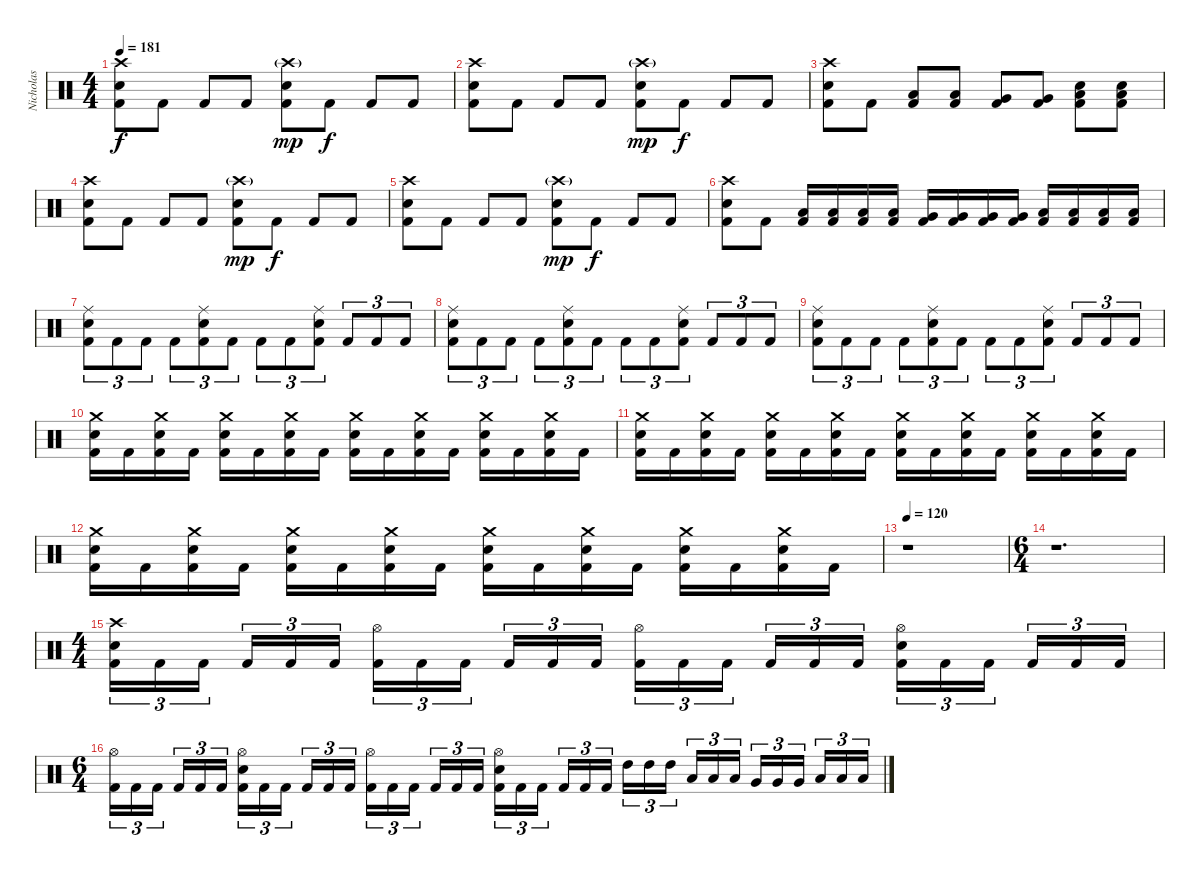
\track ("Nicholas" "Nicholas") {instrument percussion}
\staff {score}
\articulation defaults
\ts (4 4)
\tempo 181
\clef neutral
\ks c
("Crash high (hit)" "Electric Snare (hit)" "Kick (hit) 2").8{dy f} "Kick (hit) 2".8 "Kick (hit) 2".8 "Kick (hit) 2".8 ("Crash high (hit)"{g} "Electric Snare (hit)" "Kick (hit) 2").8{dy mp} "Kick (hit) 2".8{dy f} "Kick (hit) 2".8 "Kick (hit) 2".8 |
("Crash high (hit)" "Electric Snare (hit)" "Kick (hit) 2").8 "Kick (hit) 2".8 "Kick (hit) 2".8 "Kick (hit) 2".8 ("Crash high (hit)"{g} "Electric Snare (hit)" "Kick (hit) 2").8{dy mp} "Kick (hit) 2".8{dy f} "Kick (hit) 2".8 "Kick (hit) 2".8 |
("Crash high (hit)" "Electric Snare (hit)" "Kick (hit) 2").8 "Kick (hit) 2".8 ("Low Tom (hit)" "Kick (hit) 2").8 ("Low Tom (hit)" "Kick (hit) 2").8 ("Very Low Tom (hit)" "Kick (hit) 2").8 ("Very Low Tom (hit)" "Kick (hit) 2").8 ("Low Floor Tom (hit)" "Electric Snare (hit)" "Kick (hit) 2").8 ("Low Floor Tom (hit)" "Electric Snare (hit)" "Kick (hit) 2").8 |
("Crash high (hit)" "Electric Snare (hit)" "Kick (hit) 2").8 "Kick (hit) 2".8 "Kick (hit) 2".8 "Kick (hit) 2".8 ("Crash high (hit)"{g} "Electric Snare (hit)" "Kick (hit) 2").8{dy mp} "Kick (hit) 2".8{dy f} "Kick (hit) 2".8 "Kick (hit) 2".8 |
("Crash high (hit)" "Electric Snare (hit)" "Kick (hit) 2").8 "Kick (hit) 2".8 "Kick (hit) 2".8 "Kick (hit) 2".8 ("Crash high (hit)"{g} "Electric Snare (hit)" "Kick (hit) 2").8{dy mp} "Kick (hit) 2".8{dy f} "Kick (hit) 2".8 "Kick (hit) 2".8 |
("Crash high (hit)" "Electric Snare (hit)" "Kick (hit) 2").8 "Kick (hit) 2".8 ("Low Tom (hit)" "Kick (hit) 2").16 ("Low Tom (hit)" "Kick (hit) 2").16 ("Low Tom (hit)" "Kick (hit) 2").16 ("Low Tom (hit)" "Kick (hit) 2").16 ("Very Low Tom (hit)" "Kick (hit) 2").16 ("Very Low Tom (hit)" "Kick (hit) 2").16 ("Very Low Tom (hit)" "Kick (hit) 2").16 ("Very Low Tom (hit)" "Kick (hit) 2").16 ("Low Floor Tom (hit)" "Kick (hit) 2").16 ("Low Floor Tom (hit)" "Kick (hit) 2").16 ("Low Floor Tom (hit)" "Kick (hit) 2").16 ("Low Floor Tom (hit)" "Kick (hit) 2").16 |
("Ride (middle)" "Electric Snare (hit)" "Kick (hit) 2").8{tu (3 2)} "Kick (hit) 2".8{tu (3 2)} "Kick (hit) 2".8{tu (3 2)} "Kick (hit) 2".8{tu (3 2)} ("Ride (middle)" "Electric Snare (hit)" "Kick (hit) 2").8{tu (3 2)} "Kick (hit) 2".8{tu (3 2)} "Kick (hit) 2".8{tu (3 2)} "Kick (hit) 2".8{tu (3 2)} ("Ride (middle)" "Electric Snare (hit)" "Kick (hit) 2").8{tu (3 2)} "Kick (hit) 2".8{tu (3 2)} "Kick (hit) 2".8{tu (3 2)} "Kick (hit) 2".8{tu (3 2)} |
("Ride (middle)" "Electric Snare (hit)" "Kick (hit) 2").8{tu (3 2)} "Kick (hit) 2".8{tu (3 2)} "Kick (hit) 2".8{tu (3 2)} "Kick (hit) 2".8{tu (3 2)} ("Ride (middle)" "Electric Snare (hit)" "Kick (hit) 2").8{tu (3 2)} "Kick (hit) 2".8{tu (3 2)} "Kick (hit) 2".8{tu (3 2)} "Kick (hit) 2".8{tu (3 2)} ("Ride (middle)" "Electric Snare (hit)" "Kick (hit) 2").8{tu (3 2)} "Kick (hit) 2".8{tu (3 2)} "Kick (hit) 2".8{tu (3 2)} "Kick (hit) 2".8{tu (3 2)} |
("Ride (middle)" "Electric Snare (hit)" "Kick (hit) 2").8{tu (3 2)} "Kick (hit) 2".8{tu (3 2)} "Kick (hit) 2".8{tu (3 2)} "Kick (hit) 2".8{tu (3 2)} ("Ride (middle)" "Electric Snare (hit)" "Kick (hit) 2").8{tu (3 2)} "Kick (hit) 2".8{tu (3 2)} "Kick (hit) 2".8{tu (3 2)} "Kick (hit) 2".8{tu (3 2)} ("Ride (middle)" "Electric Snare (hit)" "Kick (hit) 2").8{tu (3 2)} "Kick (hit) 2".8{tu (3 2)} "Kick (hit) 2".8{tu (3 2)} "Kick (hit) 2".8{tu (3 2)} |
("Crash medium (hit)" "Electric Snare (hit)" "Kick (hit) 2").16 "Kick (hit) 2".16 ("Crash medium (hit)" "Electric Snare (hit)" "Kick (hit) 2").16 "Kick (hit) 2".16 ("Crash medium (hit)" "Electric Snare (hit)" "Kick (hit) 2").16 "Kick (hit) 2".16 ("Crash medium (hit)" "Electric Snare (hit)" "Kick (hit) 2").16 "Kick (hit) 2".16 ("Crash medium (hit)" "Electric Snare (hit)" "Kick (hit) 2").16 "Kick (hit) 2".16 ("Crash medium (hit)" "Electric Snare (hit)" "Kick (hit) 2").16 "Kick (hit) 2".16 ("Crash medium (hit)" "Electric Snare (hit)" "Kick (hit) 2").16 "Kick (hit) 2".16 ("Crash medium (hit)" "Electric Snare (hit)" "Kick (hit) 2").16 "Kick (hit) 2".16 |
("Crash medium (hit)" "Electric Snare (hit)" "Kick (hit) 2").16 "Kick (hit) 2".16 ("Crash medium (hit)" "Electric Snare (hit)" "Kick (hit) 2").16 "Kick (hit) 2".16 ("Crash medium (hit)" "Electric Snare (hit)" "Kick (hit) 2").16 "Kick (hit) 2".16 ("Crash medium (hit)" "Electric Snare (hit)" "Kick (hit) 2").16 "Kick (hit) 2".16 ("Crash medium (hit)" "Electric Snare (hit)" "Kick (hit) 2").16 "Kick (hit) 2".16 ("Crash medium (hit)" "Electric Snare (hit)" "Kick (hit) 2").16 "Kick (hit) 2".16 ("Crash medium (hit)" "Electric Snare (hit)" "Kick (hit) 2").16 "Kick (hit) 2".16 ("Crash medium (hit)" "Electric Snare (hit)" "Kick (hit) 2").16 "Kick (hit) 2".16 |
("Crash medium (hit)" "Electric Snare (hit)" "Kick (hit) 2").16 "Kick (hit) 2".16 ("Crash medium (hit)" "Electric Snare (hit)" "Kick (hit) 2").16 "Kick (hit) 2".16 ("Crash medium (hit)" "Electric Snare (hit)" "Kick (hit) 2").16 "Kick (hit) 2".16 ("Crash medium (hit)" "Electric Snare (hit)" "Kick (hit) 2").16 "Kick (hit) 2".16 ("Crash medium (hit)" "Electric Snare (hit)" "Kick (hit) 2").16 "Kick (hit) 2".16 ("Crash medium (hit)" "Electric Snare (hit)" "Kick (hit) 2").16 "Kick (hit) 2".16 ("Crash medium (hit)" "Electric Snare (hit)" "Kick (hit) 2").16 "Kick (hit) 2".16 ("Crash medium (hit)" "Electric Snare (hit)" "Kick (hit) 2").16 "Kick (hit) 2".16 |
\tempo 120
r.1 |
\ts (6 4)
r.1{d} |
\ts (4 4)
("Crash high (hit)" "Electric Snare (hit)" "Kick (hit) 2").16{tu (3 2)} "Kick (hit) 2".16{tu (3 2)} "Kick (hit) 2".16{tu (3 2)} "Kick (hit) 2".16{tu (3 2)} "Kick (hit) 2".16{tu (3 2)} "Kick (hit) 2".16{tu (3 2)} ("Hi-Hat (open)" "Kick (hit) 2").16{tu (3 2)} "Kick (hit) 2".16{tu (3 2)} "Kick (hit) 2".16{tu (3 2)} "Kick (hit) 2".16{tu (3 2)} "Kick (hit) 2".16{tu (3 2)} "Kick (hit) 2".16{tu (3 2)} ("Hi-Hat (open)" "Kick (hit) 2").16{tu (3 2)} "Kick (hit) 2".16{tu (3 2)} "Kick (hit) 2".16{tu (3 2)} "Kick (hit) 2".16{tu (3 2)} "Kick (hit) 2".16{tu (3 2)} "Kick (hit) 2".16{tu (3 2)} ("Hi-Hat (open)" "Electric Snare (hit)" "Kick (hit) 2").16{tu (3 2)} "Kick (hit) 2".16{tu (3 2)} "Kick (hit) 2".16{tu (3 2)} "Kick (hit) 2".16{tu (3 2)} "Kick (hit) 2".16{tu (3 2)} "Kick (hit) 2".16{tu (3 2)} |
\ts (6 4)
("Hi-Hat (open)" "Kick (hit) 2").16{tu (3 2)} "Kick (hit) 2".16{tu (3 2)} "Kick (hit) 2".16{tu (3 2)} "Kick (hit) 2".16{tu (3 2)} "Kick (hit) 2".16{tu (3 2)} "Kick (hit) 2".16{tu (3 2)} ("Hi-Hat (open)" "Electric Snare (hit)" "Kick (hit) 2").16{tu (3 2)} "Kick (hit) 2".16{tu (3 2)} "Kick (hit) 2".16{tu (3 2)} "Kick (hit) 2".16{tu (3 2)} "Kick (hit) 2".16{tu (3 2)} "Kick (hit) 2".16{tu (3 2)} ("Hi-Hat (open)" "Kick (hit) 2").16{tu (3 2)} "Kick (hit) 2".16{tu (3 2)} "Kick (hit) 2".16{tu (3 2)} "Kick (hit) 2".16{tu (3 2)} "Kick (hit) 2".16{tu (3 2)} "Kick (hit) 2".16{tu (3 2)} ("Hi-Hat (open)" "Electric Snare (hit)" "Kick (hit) 2").16{tu (3 2)} "Kick (hit) 2".16{tu (3 2)} "Kick (hit) 2".16{tu (3 2)} "Kick (hit) 2".16{tu (3 2)} "Kick (hit) 2".16{tu (3 2)} "Kick (hit) 2".16{tu (3 2)} "High Tom (hit)".16{tu (3 2)} "High Tom (hit)".16{tu (3 2)} "High Tom (hit)".16{tu (3 2)} "Low Tom (hit)".16{tu (3 2)} "Low Tom (hit)".16{tu (3 2)} "Low Tom (hit)".16{tu (3 2)} "Very Low Tom (hit)".16{tu (3 2)} "Very Low Tom (hit)".16{tu (3 2)} "Very Low Tom (hit)".16{tu (3 2)} "Low Floor Tom (hit)".16{tu (3 2)} "Low Floor Tom (hit)".16{tu (3 2)} "Low Floor Tom (hit)".16{tu (3 2)}
